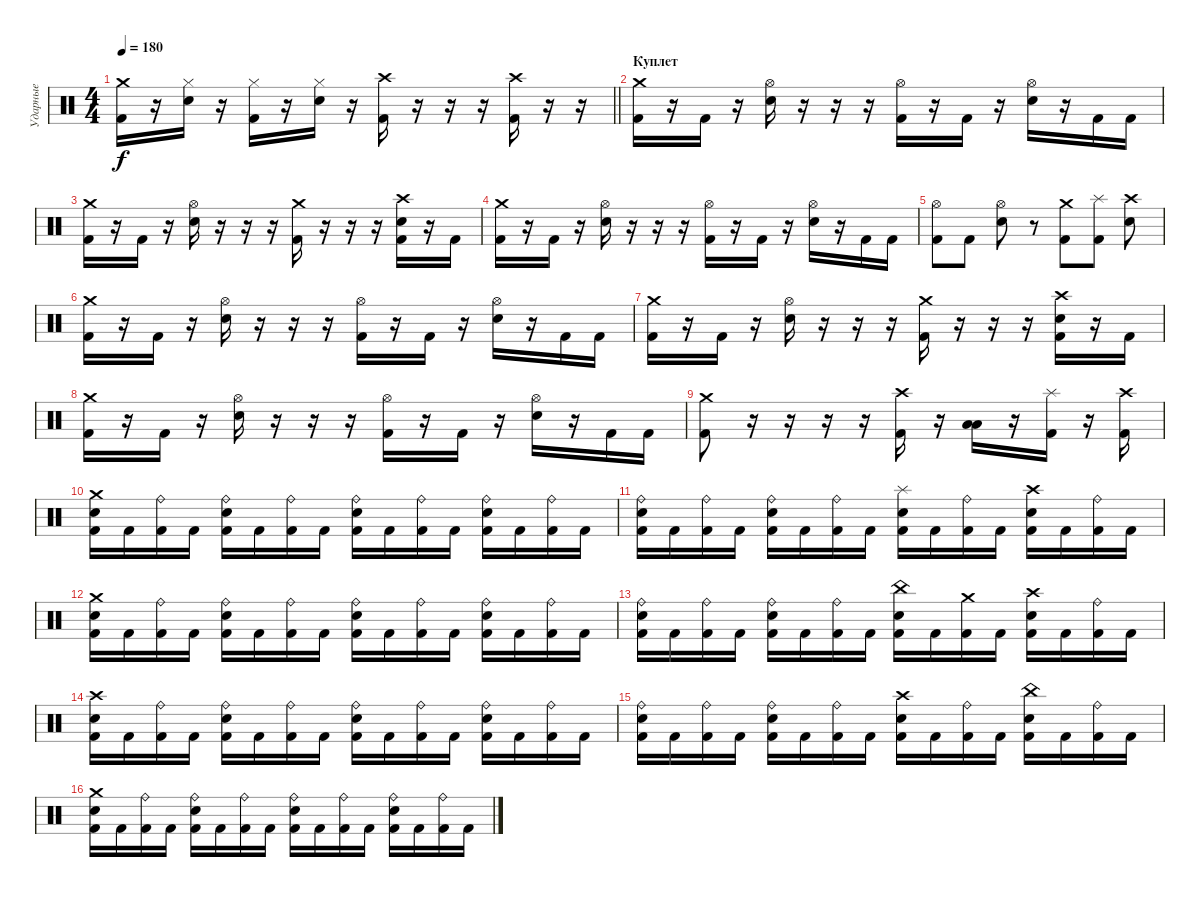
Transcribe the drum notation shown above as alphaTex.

\track ("Ударные" "Ударные") {instrument percussion}
\staff {score}
\articulation defaults
\ts (4 4)
\tempo 180
\clef neutral
\barLineRight lightlight
\ks c
("Crash medium (hit)" "Kick (hit) 2").16{dy f} r.16 ("Hi-Hat (closed)" "Snare (hit) 2").16 r.16 ("Hi-Hat (closed)" "Kick (hit) 2").16 r.16 ("Hi-Hat (closed)" "Snare (hit) 2").16 r.16 ("Crash high (hit)" "Kick (hit) 2").16 r.16 r.16 r.16 ("Crash high (hit)" "Kick (hit) 2").16 r.16 r.16 |
\section ("" "Куплет ")
("Crash medium (hit)" "Kick (hit) 2").16 r.16 "Kick (hit) 2".16 r.16 ("Hi-Hat (open)" "Snare (hit) 2").16 r.16 r.16 r.16 ("Hi-Hat (open)" "Kick (hit) 2").16 r.16 "Kick (hit) 2".16 r.16 ("Hi-Hat (open)" "Snare (hit) 2").16 r.16 "Kick (hit) 2".16 "Kick (hit) 2".16 |
("Crash medium (hit)" "Kick (hit) 2").16 r.16 "Kick (hit) 2".16 r.16 ("Hi-Hat (open)" "Snare (hit) 2").16 r.16 r.16 r.16 ("Crash medium (hit)" "Kick (hit) 2").16 r.16 r.16 r.16 ("Crash high (hit)" "Snare (hit) 2" "Kick (hit) 2").16 r.16 "Kick (hit) 2".16 |
("Crash medium (hit)" "Kick (hit) 2").16 r.16 "Kick (hit) 2".16 r.16 ("Hi-Hat (open)" "Snare (hit) 2").16 r.16 r.16 r.16 ("Hi-Hat (open)" "Kick (hit) 2").16 r.16 "Kick (hit) 2".16 r.16 ("Hi-Hat (open)" "Snare (hit) 2").16 r.16 "Kick (hit) 2".16 "Kick (hit) 2".16 |
("Hi-Hat (open)" "Kick (hit) 2").8 "Kick (hit) 2".8 ("Hi-Hat (open)" "Snare (hit) 2").8 r.8 ("Crash medium (hit)" "Kick (hit) 2").8 ("Splash (hit)" "Kick (hit) 2").8 ("Crash high (hit)" "Snare (hit) 2").8 |
("Crash medium (hit)" "Kick (hit) 2").16 r.16 "Kick (hit) 2".16 r.16 ("Hi-Hat (open)" "Snare (hit) 2").16 r.16 r.16 r.16 ("Hi-Hat (open)" "Kick (hit) 2").16 r.16 "Kick (hit) 2".16 r.16 ("Hi-Hat (open)" "Snare (hit) 2").16 r.16 "Kick (hit) 2".16 "Kick (hit) 2".16 |
("Crash medium (hit)" "Kick (hit) 2").16 r.16 "Kick (hit) 2".16 r.16 ("Hi-Hat (open)" "Snare (hit) 2").16 r.16 r.16 r.16 ("Crash medium (hit)" "Kick (hit) 2").16 r.16 r.16 r.16 ("Crash high (hit)" "Snare (hit) 2" "Kick (hit) 2").16 r.16 "Kick (hit) 2".16 |
("Crash medium (hit)" "Kick (hit) 2").16 r.16 "Kick (hit) 2".16 r.16 ("Hi-Hat (open)" "Snare (hit) 2").16 r.16 r.16 r.16 ("Hi-Hat (open)" "Kick (hit) 2").16 r.16 "Kick (hit) 2".16 r.16 ("Hi-Hat (open)" "Snare (hit) 2").16 r.16 "Kick (hit) 2".16 "Kick (hit) 2".16 |
("Crash medium (hit)" "Kick (hit) 2").8 r.16 r.16 r.16 r.16 ("Crash high (hit)" "Kick (hit) 2").16 r.16 ("Low Tom (hit)" "Low Floor Tom (hit)").16 r.16 ("Splash (hit)" "Kick (hit) 2").16 r.16 ("Crash high (hit)" "Kick (hit) 2").16 |
("Crash medium (hit)" "Snare (hit) 2" "Kick (hit) 2").16 "Kick (hit) 2".16 ("Ride (bell)" "Kick (hit) 2").16 "Kick (hit) 2".16 ("Ride (bell)" "Snare (hit) 2" "Kick (hit) 2").16 "Kick (hit) 2".16 ("Ride (bell)" "Kick (hit) 2").16 "Kick (hit) 2".16 ("Ride (bell)" "Snare (hit) 2" "Kick (hit) 2").16 "Kick (hit) 2".16 ("Ride (bell)" "Kick (hit) 2").16 "Kick (hit) 2".16 ("Ride (bell)" "Snare (hit) 2" "Kick (hit) 2").16 "Kick (hit) 2".16 ("Ride (bell)" "Kick (hit) 2").16 "Kick (hit) 2".16 |
("Ride (bell)" "Snare (hit) 2" "Kick (hit) 2").16 "Kick (hit) 2".16 ("Ride (bell)" "Kick (hit) 2").16 "Kick (hit) 2".16 ("Ride (bell)" "Snare (hit) 2" "Kick (hit) 2").16 "Kick (hit) 2".16 ("Ride (bell)" "Kick (hit) 2").16 "Kick (hit) 2".16 ("Splash (hit)" "Snare (hit) 2" "Kick (hit) 2").16 "Kick (hit) 2".16 ("Ride (bell)" "Kick (hit) 2").16 "Kick (hit) 2".16 ("Crash high (hit)" "Snare (hit) 2" "Kick (hit) 2").16 "Kick (hit) 2".16 ("Ride (bell)" "Kick (hit) 2").16 "Kick (hit) 2".16 |
("Crash medium (hit)" "Snare (hit) 2" "Kick (hit) 2").16 "Kick (hit) 2".16 ("Ride (bell)" "Kick (hit) 2").16 "Kick (hit) 2".16 ("Ride (bell)" "Snare (hit) 2" "Kick (hit) 2").16 "Kick (hit) 2".16 ("Ride (bell)" "Kick (hit) 2").16 "Kick (hit) 2".16 ("Ride (bell)" "Snare (hit) 2" "Kick (hit) 2").16 "Kick (hit) 2".16 ("Ride (bell)" "Kick (hit) 2").16 "Kick (hit) 2".16 ("Ride (bell)" "Snare (hit) 2" "Kick (hit) 2").16 "Kick (hit) 2".16 ("Ride (bell)" "Kick (hit) 2").16 "Kick (hit) 2".16 |
("Ride (bell)" "Snare (hit) 2" "Kick (hit) 2").16 "Kick (hit) 2".16 ("Ride (bell)" "Kick (hit) 2").16 "Kick (hit) 2".16 ("Ride (bell)" "Snare (hit) 2" "Kick (hit) 2").16 "Kick (hit) 2".16 ("Ride (bell)" "Kick (hit) 2").16 "Kick (hit) 2".16 ("China (hit)" "Snare (hit) 2" "Kick (hit) 2").16 "Kick (hit) 2".16 ("Crash medium (hit)" "Kick (hit) 2").16 "Kick (hit) 2".16 ("Crash high (hit)" "Snare (hit) 2" "Kick (hit) 2").16 "Kick (hit) 2".16 ("Ride (bell)" "Kick (hit) 2").16 "Kick (hit) 2".16 |
("Crash high (hit)" "Snare (hit) 2" "Kick (hit) 2").16 "Kick (hit) 2".16 ("Ride (bell)" "Kick (hit) 2").16 "Kick (hit) 2".16 ("Ride (bell)" "Snare (hit) 2" "Kick (hit) 2").16 "Kick (hit) 2".16 ("Ride (bell)" "Kick (hit) 2").16 "Kick (hit) 2".16 ("Ride (bell)" "Snare (hit) 2" "Kick (hit) 2").16 "Kick (hit) 2".16 ("Ride (bell)" "Kick (hit) 2").16 "Kick (hit) 2".16 ("Ride (bell)" "Snare (hit) 2" "Kick (hit) 2").16 "Kick (hit) 2".16 ("Ride (bell)" "Kick (hit) 2").16 "Kick (hit) 2".16 |
("Ride (bell)" "Snare (hit) 2" "Kick (hit) 2").16 "Kick (hit) 2".16 ("Ride (bell)" "Kick (hit) 2").16 "Kick (hit) 2".16 ("Ride (bell)" "Snare (hit) 2" "Kick (hit) 2").16 "Kick (hit) 2".16 ("Ride (bell)" "Kick (hit) 2").16 "Kick (hit) 2".16 ("Crash high (hit)" "Snare (hit) 2" "Kick (hit) 2").16 "Kick (hit) 2".16 ("Ride (bell)" "Kick (hit) 2").16 "Kick (hit) 2".16 ("China (hit)" "Snare (hit) 2" "Kick (hit) 2").16 "Kick (hit) 2".16 ("Ride (bell)" "Kick (hit) 2").16 "Kick (hit) 2".16 |
("Crash medium (hit)" "Snare (hit) 2" "Kick (hit) 2").16 "Kick (hit) 2".16 ("Ride (bell)" "Kick (hit) 2").16 "Kick (hit) 2".16 ("Ride (bell)" "Snare (hit) 2" "Kick (hit) 2").16 "Kick (hit) 2".16 ("Ride (bell)" "Kick (hit) 2").16 "Kick (hit) 2".16 ("Ride (bell)" "Snare (hit) 2" "Kick (hit) 2").16 "Kick (hit) 2".16 ("Ride (bell)" "Kick (hit) 2").16 "Kick (hit) 2".16 ("Ride (bell)" "Snare (hit) 2" "Kick (hit) 2").16 "Kick (hit) 2".16 ("Ride (bell)" "Kick (hit) 2").16 "Kick (hit) 2".16
